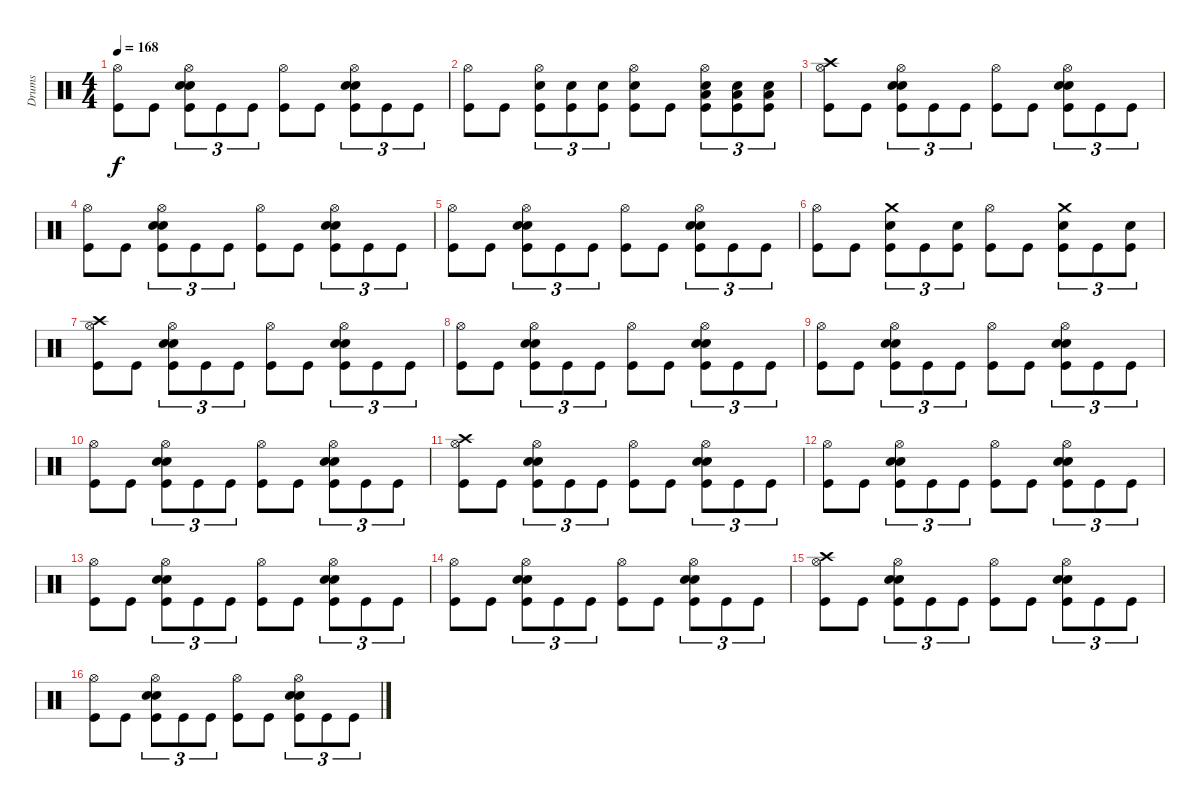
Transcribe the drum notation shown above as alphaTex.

\track ("Drums" "Drums") {instrument percussion}
\staff {score}
\articulation defaults
\ts (4 4)
\tempo 168
\clef neutral
\ks c
("Hi-Hat (open)" "Kick (hit)").8{dy f} "Kick (hit)".8 ("Electric Snare (hit)" "Electric Snare (hit)" "Hi-Hat (open)" "Kick (hit)").8{tu (3 2)} "Kick (hit)".8{tu (3 2)} "Kick (hit)".8{tu (3 2)} ("Hi-Hat (open)" "Kick (hit)").8 "Kick (hit)".8 ("Electric Snare (hit)" "Electric Snare (hit)" "Hi-Hat (open)" "Kick (hit)").8{tu (3 2)} "Kick (hit)".8{tu (3 2)} "Kick (hit)".8{tu (3 2)} |
("Hi-Hat (open)" "Kick (hit)").8 "Kick (hit)".8 ("Electric Snare (hit)" "Hi-Hat (open)" "Kick (hit)").8{tu (3 2)} ("Electric Snare (hit)" "Kick (hit)").8{tu (3 2)} ("Electric Snare (hit)" "Kick (hit)").8{tu (3 2)} ("Electric Snare (hit)" "Hi-Hat (open)" "Kick (hit)").8 "Kick (hit)".8 ("Low Floor Tom (hit)" "Electric Snare (hit)" "Hi-Hat (open)" "Kick (hit)").8{tu (3 2)} ("Low Floor Tom (hit)" "Electric Snare (hit)" "Kick (hit)").8{tu (3 2)} ("Low Floor Tom (hit)" "Electric Snare (hit)" "Kick (hit)").8{tu (3 2)} |
("Crash high (hit)" "Hi-Hat (open)" "Kick (hit)").8 "Kick (hit)".8 ("Electric Snare (hit)" "Electric Snare (hit)" "Hi-Hat (open)" "Kick (hit)").8{tu (3 2)} "Kick (hit)".8{tu (3 2)} "Kick (hit)".8{tu (3 2)} ("Hi-Hat (open)" "Kick (hit)").8 "Kick (hit)".8 ("Electric Snare (hit)" "Electric Snare (hit)" "Hi-Hat (open)" "Kick (hit)").8{tu (3 2)} "Kick (hit)".8{tu (3 2)} "Kick (hit)".8{tu (3 2)} |
("Hi-Hat (open)" "Kick (hit)").8 "Kick (hit)".8 ("Electric Snare (hit)" "Electric Snare (hit)" "Hi-Hat (open)" "Kick (hit)").8{tu (3 2)} "Kick (hit)".8{tu (3 2)} "Kick (hit)".8{tu (3 2)} ("Hi-Hat (open)" "Kick (hit)").8 "Kick (hit)".8 ("Electric Snare (hit)" "Electric Snare (hit)" "Hi-Hat (open)" "Kick (hit)").8{tu (3 2)} "Kick (hit)".8{tu (3 2)} "Kick (hit)".8{tu (3 2)} |
("Hi-Hat (open)" "Kick (hit)").8 "Kick (hit)".8 ("Electric Snare (hit)" "Electric Snare (hit)" "Hi-Hat (open)" "Kick (hit)").8{tu (3 2)} "Kick (hit)".8{tu (3 2)} "Kick (hit)".8{tu (3 2)} ("Hi-Hat (open)" "Kick (hit)").8 "Kick (hit)".8 ("Electric Snare (hit)" "Electric Snare (hit)" "Hi-Hat (open)" "Kick (hit)").8{tu (3 2)} "Kick (hit)".8{tu (3 2)} "Kick (hit)".8{tu (3 2)} |
("Hi-Hat (open)" "Kick (hit)").8 "Kick (hit)".8 ("Electric Snare (hit)" "Crash medium (hit)" "Kick (hit)").8{tu (3 2)} "Kick (hit)".8{tu (3 2)} ("Electric Snare (hit)" "Kick (hit)").8{tu (3 2)} ("Hi-Hat (open)" "Kick (hit)").8 "Kick (hit)".8 ("Electric Snare (hit)" "Crash medium (hit)" "Kick (hit)").8{tu (3 2)} "Kick (hit)".8{tu (3 2)} ("Electric Snare (hit)" "Kick (hit)").8{tu (3 2)} |
("Crash high (hit)" "Hi-Hat (open)" "Kick (hit)").8 "Kick (hit)".8 ("Electric Snare (hit)" "Electric Snare (hit)" "Hi-Hat (open)" "Kick (hit)").8{tu (3 2)} "Kick (hit)".8{tu (3 2)} "Kick (hit)".8{tu (3 2)} ("Hi-Hat (open)" "Kick (hit)").8 "Kick (hit)".8 ("Electric Snare (hit)" "Electric Snare (hit)" "Hi-Hat (open)" "Kick (hit)").8{tu (3 2)} "Kick (hit)".8{tu (3 2)} "Kick (hit)".8{tu (3 2)} |
("Hi-Hat (open)" "Kick (hit)").8 "Kick (hit)".8 ("Electric Snare (hit)" "Electric Snare (hit)" "Hi-Hat (open)" "Kick (hit)").8{tu (3 2)} "Kick (hit)".8{tu (3 2)} "Kick (hit)".8{tu (3 2)} ("Hi-Hat (open)" "Kick (hit)").8 "Kick (hit)".8 ("Electric Snare (hit)" "Electric Snare (hit)" "Hi-Hat (open)" "Kick (hit)").8{tu (3 2)} "Kick (hit)".8{tu (3 2)} "Kick (hit)".8{tu (3 2)} |
("Hi-Hat (open)" "Kick (hit)").8 "Kick (hit)".8 ("Electric Snare (hit)" "Electric Snare (hit)" "Hi-Hat (open)" "Kick (hit)").8{tu (3 2)} "Kick (hit)".8{tu (3 2)} "Kick (hit)".8{tu (3 2)} ("Hi-Hat (open)" "Kick (hit)").8 "Kick (hit)".8 ("Electric Snare (hit)" "Electric Snare (hit)" "Hi-Hat (open)" "Kick (hit)").8{tu (3 2)} "Kick (hit)".8{tu (3 2)} "Kick (hit)".8{tu (3 2)} |
("Hi-Hat (open)" "Kick (hit)").8 "Kick (hit)".8 ("Electric Snare (hit)" "Electric Snare (hit)" "Hi-Hat (open)" "Kick (hit)").8{tu (3 2)} "Kick (hit)".8{tu (3 2)} "Kick (hit)".8{tu (3 2)} ("Hi-Hat (open)" "Kick (hit)").8 "Kick (hit)".8 ("Electric Snare (hit)" "Electric Snare (hit)" "Hi-Hat (open)" "Kick (hit)").8{tu (3 2)} "Kick (hit)".8{tu (3 2)} "Kick (hit)".8{tu (3 2)} |
("Crash high (hit)" "Hi-Hat (open)" "Kick (hit)").8 "Kick (hit)".8 ("Electric Snare (hit)" "Electric Snare (hit)" "Hi-Hat (open)" "Kick (hit)").8{tu (3 2)} "Kick (hit)".8{tu (3 2)} "Kick (hit)".8{tu (3 2)} ("Hi-Hat (open)" "Kick (hit)").8 "Kick (hit)".8 ("Electric Snare (hit)" "Electric Snare (hit)" "Hi-Hat (open)" "Kick (hit)").8{tu (3 2)} "Kick (hit)".8{tu (3 2)} "Kick (hit)".8{tu (3 2)} |
("Hi-Hat (open)" "Kick (hit)").8 "Kick (hit)".8 ("Electric Snare (hit)" "Electric Snare (hit)" "Hi-Hat (open)" "Kick (hit)").8{tu (3 2)} "Kick (hit)".8{tu (3 2)} "Kick (hit)".8{tu (3 2)} ("Hi-Hat (open)" "Kick (hit)").8 "Kick (hit)".8 ("Electric Snare (hit)" "Electric Snare (hit)" "Hi-Hat (open)" "Kick (hit)").8{tu (3 2)} "Kick (hit)".8{tu (3 2)} "Kick (hit)".8{tu (3 2)} |
("Hi-Hat (open)" "Kick (hit)").8 "Kick (hit)".8 ("Electric Snare (hit)" "Electric Snare (hit)" "Hi-Hat (open)" "Kick (hit)").8{tu (3 2)} "Kick (hit)".8{tu (3 2)} "Kick (hit)".8{tu (3 2)} ("Hi-Hat (open)" "Kick (hit)").8 "Kick (hit)".8 ("Electric Snare (hit)" "Electric Snare (hit)" "Hi-Hat (open)" "Kick (hit)").8{tu (3 2)} "Kick (hit)".8{tu (3 2)} "Kick (hit)".8{tu (3 2)} |
("Hi-Hat (open)" "Kick (hit)").8 "Kick (hit)".8 ("Electric Snare (hit)" "Electric Snare (hit)" "Hi-Hat (open)" "Kick (hit)").8{tu (3 2)} "Kick (hit)".8{tu (3 2)} "Kick (hit)".8{tu (3 2)} ("Hi-Hat (open)" "Kick (hit)").8 "Kick (hit)".8 ("Electric Snare (hit)" "Electric Snare (hit)" "Hi-Hat (open)" "Kick (hit)").8{tu (3 2)} "Kick (hit)".8{tu (3 2)} "Kick (hit)".8{tu (3 2)} |
("Crash high (hit)" "Hi-Hat (open)" "Kick (hit)").8 "Kick (hit)".8 ("Electric Snare (hit)" "Electric Snare (hit)" "Hi-Hat (open)" "Kick (hit)").8{tu (3 2)} "Kick (hit)".8{tu (3 2)} "Kick (hit)".8{tu (3 2)} ("Hi-Hat (open)" "Kick (hit)").8 "Kick (hit)".8 ("Electric Snare (hit)" "Electric Snare (hit)" "Hi-Hat (open)" "Kick (hit)").8{tu (3 2)} "Kick (hit)".8{tu (3 2)} "Kick (hit)".8{tu (3 2)} |
("Hi-Hat (open)" "Kick (hit)").8 "Kick (hit)".8 ("Electric Snare (hit)" "Electric Snare (hit)" "Hi-Hat (open)" "Kick (hit)").8{tu (3 2)} "Kick (hit)".8{tu (3 2)} "Kick (hit)".8{tu (3 2)} ("Hi-Hat (open)" "Kick (hit)").8 "Kick (hit)".8 ("Electric Snare (hit)" "Electric Snare (hit)" "Hi-Hat (open)" "Kick (hit)").8{tu (3 2)} "Kick (hit)".8{tu (3 2)} "Kick (hit)".8{tu (3 2)}
